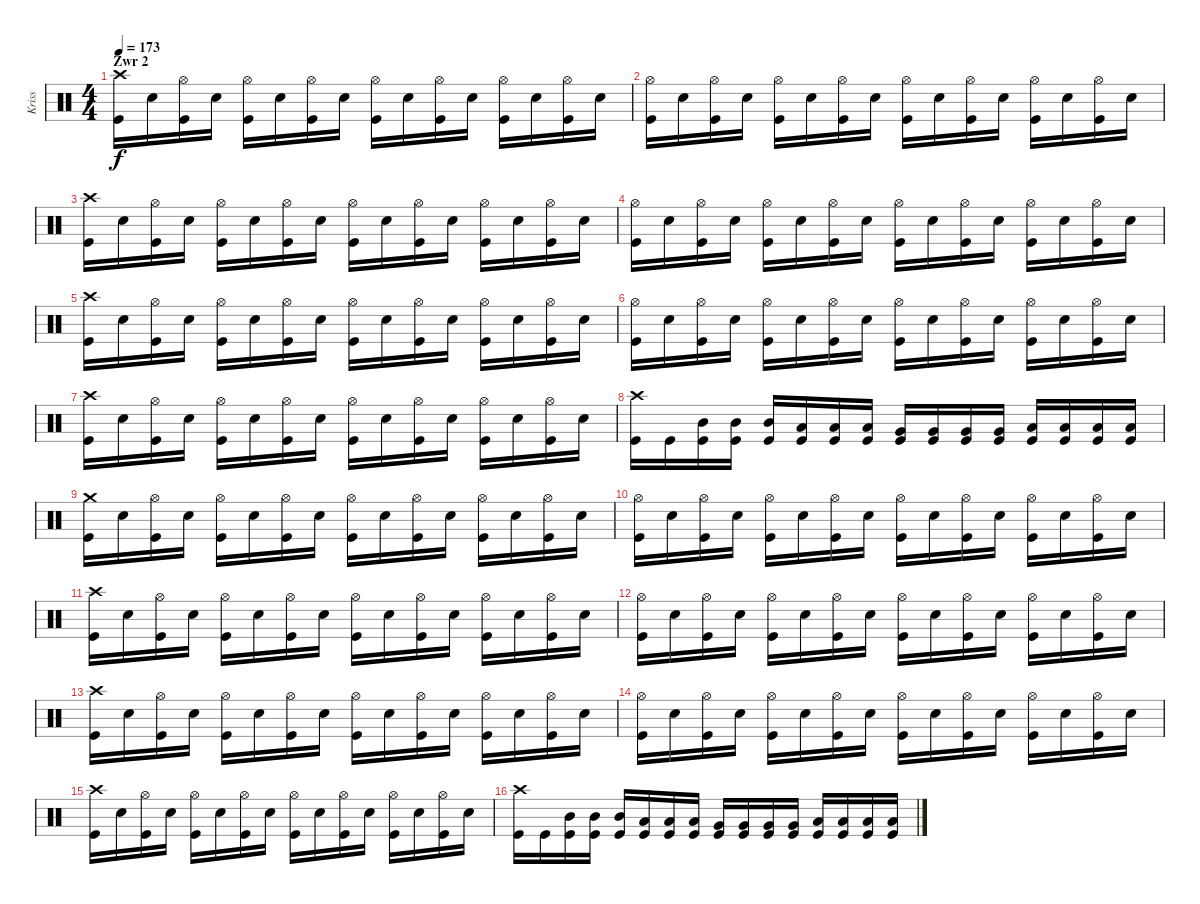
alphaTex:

\track ("Kriss" "Kriss") {instrument percussion}
\staff {score}
\articulation defaults
\ts (4 4)
\section ("" "Zwr 2")
\tempo 173
\clef neutral
\ks c
("Crash high (hit)" "Kick (hit)").16{dy f} "Snare (hit) 2".16 ("Hi-Hat (open)" "Kick (hit)").16 "Snare (hit) 2".16 ("Hi-Hat (open)" "Kick (hit)").16 "Snare (hit) 2".16 ("Hi-Hat (open)" "Kick (hit)").16 "Snare (hit) 2".16 ("Hi-Hat (open)" "Kick (hit)").16 "Snare (hit) 2".16 ("Hi-Hat (open)" "Kick (hit)").16 "Snare (hit) 2".16 ("Hi-Hat (open)" "Kick (hit)").16 "Snare (hit) 2".16 ("Hi-Hat (open)" "Kick (hit)").16 "Snare (hit) 2".16 |
("Hi-Hat (open)" "Kick (hit)").16 "Snare (hit) 2".16 ("Hi-Hat (open)" "Kick (hit)").16 "Snare (hit) 2".16 ("Hi-Hat (open)" "Kick (hit)").16 "Snare (hit) 2".16 ("Hi-Hat (open)" "Kick (hit)").16 "Snare (hit) 2".16 ("Hi-Hat (open)" "Kick (hit)").16 "Snare (hit) 2".16 ("Hi-Hat (open)" "Kick (hit)").16 "Snare (hit) 2".16 ("Hi-Hat (open)" "Kick (hit)").16 "Snare (hit) 2".16 ("Hi-Hat (open)" "Kick (hit)").16 "Snare (hit) 2".16 |
("Crash high (hit)" "Kick (hit)").16 "Snare (hit) 2".16 ("Hi-Hat (open)" "Kick (hit)").16 "Snare (hit) 2".16 ("Hi-Hat (open)" "Kick (hit)").16 "Snare (hit) 2".16 ("Hi-Hat (open)" "Kick (hit)").16 "Snare (hit) 2".16 ("Hi-Hat (open)" "Kick (hit)").16 "Snare (hit) 2".16 ("Hi-Hat (open)" "Kick (hit)").16 "Snare (hit) 2".16 ("Hi-Hat (open)" "Kick (hit)").16 "Snare (hit) 2".16 ("Hi-Hat (open)" "Kick (hit)").16 "Snare (hit) 2".16 |
("Hi-Hat (open)" "Kick (hit)").16 "Snare (hit) 2".16 ("Hi-Hat (open)" "Kick (hit)").16 "Snare (hit) 2".16 ("Hi-Hat (open)" "Kick (hit)").16 "Snare (hit) 2".16 ("Hi-Hat (open)" "Kick (hit)").16 "Snare (hit) 2".16 ("Hi-Hat (open)" "Kick (hit)").16 "Snare (hit) 2".16 ("Hi-Hat (open)" "Kick (hit)").16 "Snare (hit) 2".16 ("Hi-Hat (open)" "Kick (hit)").16 "Snare (hit) 2".16 ("Hi-Hat (open)" "Kick (hit)").16 "Snare (hit) 2".16 |
("Crash high (hit)" "Kick (hit)").16 "Snare (hit) 2".16 ("Hi-Hat (open)" "Kick (hit)").16 "Snare (hit) 2".16 ("Hi-Hat (open)" "Kick (hit)").16 "Snare (hit) 2".16 ("Hi-Hat (open)" "Kick (hit)").16 "Snare (hit) 2".16 ("Hi-Hat (open)" "Kick (hit)").16 "Snare (hit) 2".16 ("Hi-Hat (open)" "Kick (hit)").16 "Snare (hit) 2".16 ("Hi-Hat (open)" "Kick (hit)").16 "Snare (hit) 2".16 ("Hi-Hat (open)" "Kick (hit)").16 "Snare (hit) 2".16 |
("Hi-Hat (open)" "Kick (hit)").16 "Snare (hit) 2".16 ("Hi-Hat (open)" "Kick (hit)").16 "Snare (hit) 2".16 ("Hi-Hat (open)" "Kick (hit)").16 "Snare (hit) 2".16 ("Hi-Hat (open)" "Kick (hit)").16 "Snare (hit) 2".16 ("Hi-Hat (open)" "Kick (hit)").16 "Snare (hit) 2".16 ("Hi-Hat (open)" "Kick (hit)").16 "Snare (hit) 2".16 ("Hi-Hat (open)" "Kick (hit)").16 "Snare (hit) 2".16 ("Hi-Hat (open)" "Kick (hit)").16 "Snare (hit) 2".16 |
("Crash high (hit)" "Kick (hit)").16 "Snare (hit) 2".16 ("Hi-Hat (open)" "Kick (hit)").16 "Snare (hit) 2".16 ("Hi-Hat (open)" "Kick (hit)").16 "Snare (hit) 2".16 ("Hi-Hat (open)" "Kick (hit)").16 "Snare (hit) 2".16 ("Hi-Hat (open)" "Kick (hit)").16 "Snare (hit) 2".16 ("Hi-Hat (open)" "Kick (hit)").16 "Snare (hit) 2".16 ("Hi-Hat (open)" "Kick (hit)").16 "Snare (hit) 2".16 ("Hi-Hat (open)" "Kick (hit)").16 "Snare (hit) 2".16 |
("Crash high (hit)" "Kick (hit)").16 "Kick (hit)".16 ("Mid Tom (hit)" "Kick (hit)").16 ("Mid Tom (hit)" "Kick (hit)").16 ("Mid Tom (hit)" "Kick (hit)").16 ("Low Tom (hit)" "Kick (hit)").16 ("Low Tom (hit)" "Kick (hit)").16 ("Low Tom (hit)" "Kick (hit)").16 ("Very Low Tom (hit)" "Kick (hit)").16 ("Very Low Tom (hit)" "Kick (hit)").16 ("Very Low Tom (hit)" "Kick (hit)").16 ("Very Low Tom (hit)" "Kick (hit)").16 ("Low Floor Tom (hit)" "Kick (hit)").16 ("Low Floor Tom (hit)" "Kick (hit)").16 ("Low Floor Tom (hit)" "Kick (hit)").16 ("Low Floor Tom (hit)" "Kick (hit)").16 |
("Crash medium (hit)" "Kick (hit)").16 "Snare (hit) 2".16 ("Hi-Hat (open)" "Kick (hit)").16 "Snare (hit) 2".16 ("Hi-Hat (open)" "Kick (hit)").16 "Snare (hit) 2".16 ("Hi-Hat (open)" "Kick (hit)").16 "Snare (hit) 2".16 ("Hi-Hat (open)" "Kick (hit)").16 "Snare (hit) 2".16 ("Hi-Hat (open)" "Kick (hit)").16 "Snare (hit) 2".16 ("Hi-Hat (open)" "Kick (hit)").16 "Snare (hit) 2".16 ("Hi-Hat (open)" "Kick (hit)").16 "Snare (hit) 2".16 |
("Hi-Hat (open)" "Kick (hit)").16 "Snare (hit) 2".16 ("Hi-Hat (open)" "Kick (hit)").16 "Snare (hit) 2".16 ("Hi-Hat (open)" "Kick (hit)").16 "Snare (hit) 2".16 ("Hi-Hat (open)" "Kick (hit)").16 "Snare (hit) 2".16 ("Hi-Hat (open)" "Kick (hit)").16 "Snare (hit) 2".16 ("Hi-Hat (open)" "Kick (hit)").16 "Snare (hit) 2".16 ("Hi-Hat (open)" "Kick (hit)").16 "Snare (hit) 2".16 ("Hi-Hat (open)" "Kick (hit)").16 "Snare (hit) 2".16 |
("Crash high (hit)" "Kick (hit)").16 "Snare (hit) 2".16 ("Hi-Hat (open)" "Kick (hit)").16 "Snare (hit) 2".16 ("Hi-Hat (open)" "Kick (hit)").16 "Snare (hit) 2".16 ("Hi-Hat (open)" "Kick (hit)").16 "Snare (hit) 2".16 ("Hi-Hat (open)" "Kick (hit)").16 "Snare (hit) 2".16 ("Hi-Hat (open)" "Kick (hit)").16 "Snare (hit) 2".16 ("Hi-Hat (open)" "Kick (hit)").16 "Snare (hit) 2".16 ("Hi-Hat (open)" "Kick (hit)").16 "Snare (hit) 2".16 |
("Hi-Hat (open)" "Kick (hit)").16 "Snare (hit) 2".16 ("Hi-Hat (open)" "Kick (hit)").16 "Snare (hit) 2".16 ("Hi-Hat (open)" "Kick (hit)").16 "Snare (hit) 2".16 ("Hi-Hat (open)" "Kick (hit)").16 "Snare (hit) 2".16 ("Hi-Hat (open)" "Kick (hit)").16 "Snare (hit) 2".16 ("Hi-Hat (open)" "Kick (hit)").16 "Snare (hit) 2".16 ("Hi-Hat (open)" "Kick (hit)").16 "Snare (hit) 2".16 ("Hi-Hat (open)" "Kick (hit)").16 "Snare (hit) 2".16 |
("Crash high (hit)" "Kick (hit)").16 "Snare (hit) 2".16 ("Hi-Hat (open)" "Kick (hit)").16 "Snare (hit) 2".16 ("Hi-Hat (open)" "Kick (hit)").16 "Snare (hit) 2".16 ("Hi-Hat (open)" "Kick (hit)").16 "Snare (hit) 2".16 ("Hi-Hat (open)" "Kick (hit)").16 "Snare (hit) 2".16 ("Hi-Hat (open)" "Kick (hit)").16 "Snare (hit) 2".16 ("Hi-Hat (open)" "Kick (hit)").16 "Snare (hit) 2".16 ("Hi-Hat (open)" "Kick (hit)").16 "Snare (hit) 2".16 |
("Hi-Hat (open)" "Kick (hit)").16 "Snare (hit) 2".16 ("Hi-Hat (open)" "Kick (hit)").16 "Snare (hit) 2".16 ("Hi-Hat (open)" "Kick (hit)").16 "Snare (hit) 2".16 ("Hi-Hat (open)" "Kick (hit)").16 "Snare (hit) 2".16 ("Hi-Hat (open)" "Kick (hit)").16 "Snare (hit) 2".16 ("Hi-Hat (open)" "Kick (hit)").16 "Snare (hit) 2".16 ("Hi-Hat (open)" "Kick (hit)").16 "Snare (hit) 2".16 ("Hi-Hat (open)" "Kick (hit)").16 "Snare (hit) 2".16 |
("Crash high (hit)" "Kick (hit)").16 "Snare (hit) 2".16 ("Hi-Hat (open)" "Kick (hit)").16 "Snare (hit) 2".16 ("Hi-Hat (open)" "Kick (hit)").16 "Snare (hit) 2".16 ("Hi-Hat (open)" "Kick (hit)").16 "Snare (hit) 2".16 ("Hi-Hat (open)" "Kick (hit)").16 "Snare (hit) 2".16 ("Hi-Hat (open)" "Kick (hit)").16 "Snare (hit) 2".16 ("Hi-Hat (open)" "Kick (hit)").16 "Snare (hit) 2".16 ("Hi-Hat (open)" "Kick (hit)").16 "Snare (hit) 2".16 |
("Crash high (hit)" "Kick (hit)").16 "Kick (hit)".16 ("Mid Tom (hit)" "Kick (hit)").16 ("Mid Tom (hit)" "Kick (hit)").16 ("Mid Tom (hit)" "Kick (hit)").16 ("Low Tom (hit)" "Kick (hit)").16 ("Low Tom (hit)" "Kick (hit)").16 ("Low Tom (hit)" "Kick (hit)").16 ("Very Low Tom (hit)" "Kick (hit)").16 ("Very Low Tom (hit)" "Kick (hit)").16 ("Very Low Tom (hit)" "Kick (hit)").16 ("Very Low Tom (hit)" "Kick (hit)").16 ("Low Floor Tom (hit)" "Kick (hit)").16 ("Low Floor Tom (hit)" "Kick (hit)").16 ("Low Floor Tom (hit)" "Kick (hit)").16 ("Low Floor Tom (hit)" "Kick (hit)").16
